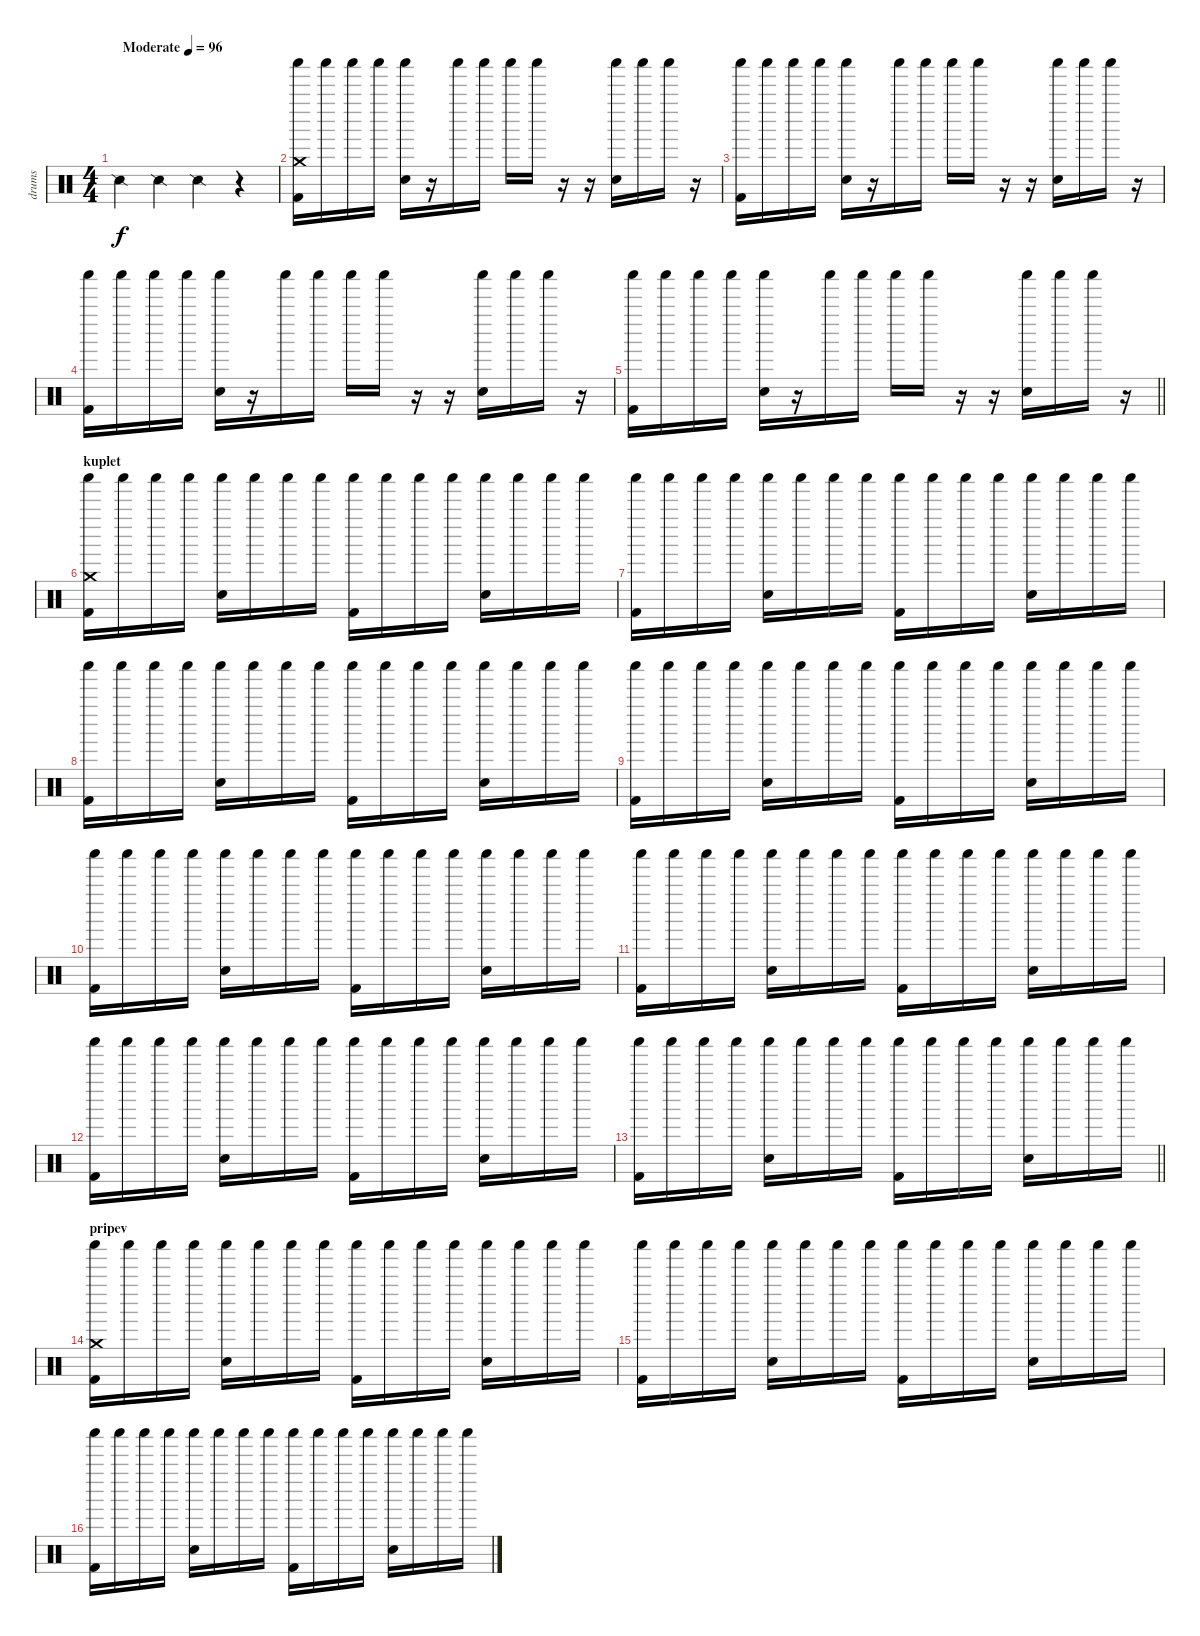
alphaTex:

\track ("drums" "drums") {instrument percussion}
\staff {score}
\articulation defaults
\ts (4 4)
\tempo (96 "Moderate")
\clef neutral
\ks c "Snare (side stick) 2".4{dy f} "Snare (side stick) 2".4 "Snare (side stick) 2".4
r.4 |
("Shaker (hit)" "Kick (hit) 2" "Crash medium (hit)").16 "Shaker (hit)".16 "Shaker (hit)".16 "Shaker (hit)".16 ("Shaker (hit)" "Electric Snare (hit)").16 r.16 "Shaker (hit)".16 "Shaker (hit)".16 "Shaker (hit)".16 "Shaker (hit)".16 r.16 r.16 ("Shaker (hit)" "Electric Snare (hit)").16 "Shaker (hit)".16 "Shaker (hit)".16 r.16 |
("Shaker (hit)" "Kick (hit) 2").16 "Shaker (hit)".16 "Shaker (hit)".16 "Shaker (hit)".16 ("Shaker (hit)" "Electric Snare (hit)").16 r.16 "Shaker (hit)".16 "Shaker (hit)".16 "Shaker (hit)".16 "Shaker (hit)".16 r.16 r.16 ("Shaker (hit)" "Electric Snare (hit)").16 "Shaker (hit)".16 "Shaker (hit)".16 r.16 |
("Shaker (hit)" "Kick (hit) 2").16 "Shaker (hit)".16 "Shaker (hit)".16 "Shaker (hit)".16 ("Shaker (hit)" "Electric Snare (hit)").16 r.16 "Shaker (hit)".16 "Shaker (hit)".16 "Shaker (hit)".16 "Shaker (hit)".16 r.16 r.16 ("Shaker (hit)" "Electric Snare (hit)").16 "Shaker (hit)".16 "Shaker (hit)".16 r.16 |
\barLineRight lightlight
("Shaker (hit)" "Kick (hit) 2").16 "Shaker (hit)".16 "Shaker (hit)".16 "Shaker (hit)".16 ("Shaker (hit)" "Electric Snare (hit)").16 r.16 "Shaker (hit)".16 "Shaker (hit)".16 "Shaker (hit)".16 "Shaker (hit)".16 r.16 r.16 ("Shaker (hit)" "Electric Snare (hit)").16 "Shaker (hit)".16 "Shaker (hit)".16 r.16 |
\section ("" "kuplet")
("Shaker (hit)" "Kick (hit) 2" "Crash medium (hit)").16 "Shaker (hit)".16 "Shaker (hit)".16 "Shaker (hit)".16 ("Shaker (hit)" "Electric Snare (hit)").16 "Shaker (hit)".16 "Shaker (hit)".16 "Shaker (hit)".16 ("Shaker (hit)" "Kick (hit) 2").16 "Shaker (hit)".16 "Shaker (hit)".16 "Shaker (hit)".16 ("Shaker (hit)" "Snare (hit) 2").16 "Shaker (hit)".16 "Shaker (hit)".16 "Shaker (hit)".16 |
("Shaker (hit)" "Kick (hit) 2").16 "Shaker (hit)".16 "Shaker (hit)".16 "Shaker (hit)".16 ("Shaker (hit)" "Electric Snare (hit)").16 "Shaker (hit)".16 "Shaker (hit)".16 "Shaker (hit)".16 ("Shaker (hit)" "Kick (hit) 2").16 "Shaker (hit)".16 "Shaker (hit)".16 "Shaker (hit)".16 ("Shaker (hit)" "Electric Snare (hit)").16 "Shaker (hit)".16 "Shaker (hit)".16 "Shaker (hit)".16 |
("Shaker (hit)" "Kick (hit) 2").16 "Shaker (hit)".16 "Shaker (hit)".16 "Shaker (hit)".16 ("Shaker (hit)" "Electric Snare (hit)").16 "Shaker (hit)".16 "Shaker (hit)".16 "Shaker (hit)".16 ("Shaker (hit)" "Kick (hit) 2").16 "Shaker (hit)".16 "Shaker (hit)".16 "Shaker (hit)".16 ("Shaker (hit)" "Electric Snare (hit)").16 "Shaker (hit)".16 "Shaker (hit)".16 "Shaker (hit)".16 |
("Shaker (hit)" "Kick (hit) 2").16 "Shaker (hit)".16 "Shaker (hit)".16 "Shaker (hit)".16 ("Shaker (hit)" "Electric Snare (hit)").16 "Shaker (hit)".16 "Shaker (hit)".16 "Shaker (hit)".16 ("Shaker (hit)" "Kick (hit) 2").16 "Shaker (hit)".16 "Shaker (hit)".16 "Shaker (hit)".16 ("Shaker (hit)" "Electric Snare (hit)").16 "Shaker (hit)".16 "Shaker (hit)".16 "Shaker (hit)".16 |
("Shaker (hit)" "Kick (hit) 2").16 "Shaker (hit)".16 "Shaker (hit)".16 "Shaker (hit)".16 ("Shaker (hit)" "Electric Snare (hit)").16 "Shaker (hit)".16 "Shaker (hit)".16 "Shaker (hit)".16 ("Shaker (hit)" "Kick (hit) 2").16 "Shaker (hit)".16 "Shaker (hit)".16 "Shaker (hit)".16 ("Shaker (hit)" "Electric Snare (hit)").16 "Shaker (hit)".16 "Shaker (hit)".16 "Shaker (hit)".16 |
("Shaker (hit)" "Kick (hit) 2").16 "Shaker (hit)".16 "Shaker (hit)".16 "Shaker (hit)".16 ("Shaker (hit)" "Electric Snare (hit)").16 "Shaker (hit)".16 "Shaker (hit)".16 "Shaker (hit)".16 ("Shaker (hit)" "Kick (hit) 2").16 "Shaker (hit)".16 "Shaker (hit)".16 "Shaker (hit)".16 ("Shaker (hit)" "Electric Snare (hit)").16 "Shaker (hit)".16 "Shaker (hit)".16 "Shaker (hit)".16 |
("Shaker (hit)" "Kick (hit) 2").16 "Shaker (hit)".16 "Shaker (hit)".16 "Shaker (hit)".16 ("Shaker (hit)" "Electric Snare (hit)").16 "Shaker (hit)".16 "Shaker (hit)".16 "Shaker (hit)".16 ("Shaker (hit)" "Kick (hit) 2").16 "Shaker (hit)".16 "Shaker (hit)".16 "Shaker (hit)".16 ("Shaker (hit)" "Electric Snare (hit)").16 "Shaker (hit)".16 "Shaker (hit)".16 "Shaker (hit)".16 |
\barLineRight lightlight
("Shaker (hit)" "Kick (hit) 2").16 "Shaker (hit)".16 "Shaker (hit)".16 "Shaker (hit)".16 ("Shaker (hit)" "Electric Snare (hit)").16 "Shaker (hit)".16 "Shaker (hit)".16 "Shaker (hit)".16 ("Shaker (hit)" "Kick (hit) 2").16 "Shaker (hit)".16 "Shaker (hit)".16 "Shaker (hit)".16 ("Shaker (hit)" "Electric Snare (hit)").16 "Shaker (hit)".16 "Shaker (hit)".16 "Shaker (hit)".16 |
\section ("" "pripev")
("Shaker (hit)" "Kick (hit) 2" "Crash medium (hit)").16 "Shaker (hit)".16 "Shaker (hit)".16 "Shaker (hit)".16 ("Shaker (hit)" "Electric Snare (hit)").16 "Shaker (hit)".16 "Shaker (hit)".16 "Shaker (hit)".16 ("Shaker (hit)" "Kick (hit) 2").16 "Shaker (hit)".16 "Shaker (hit)".16 "Shaker (hit)".16 ("Shaker (hit)" "Snare (hit) 2").16 "Shaker (hit)".16 "Shaker (hit)".16 "Shaker (hit)".16 |
("Shaker (hit)" "Kick (hit) 2").16 "Shaker (hit)".16 "Shaker (hit)".16 "Shaker (hit)".16 ("Shaker (hit)" "Electric Snare (hit)").16 "Shaker (hit)".16 "Shaker (hit)".16 "Shaker (hit)".16 ("Shaker (hit)" "Kick (hit) 2").16 "Shaker (hit)".16 "Shaker (hit)".16 "Shaker (hit)".16 ("Shaker (hit)" "Electric Snare (hit)").16 "Shaker (hit)".16 "Shaker (hit)".16 "Shaker (hit)".16 |
("Shaker (hit)" "Kick (hit) 2").16 "Shaker (hit)".16 "Shaker (hit)".16 "Shaker (hit)".16 ("Shaker (hit)" "Electric Snare (hit)").16 "Shaker (hit)".16 "Shaker (hit)".16 "Shaker (hit)".16 ("Shaker (hit)" "Kick (hit) 2").16 "Shaker (hit)".16 "Shaker (hit)".16 "Shaker (hit)".16 ("Shaker (hit)" "Electric Snare (hit)").16 "Shaker (hit)".16 "Shaker (hit)".16 "Shaker (hit)".16
